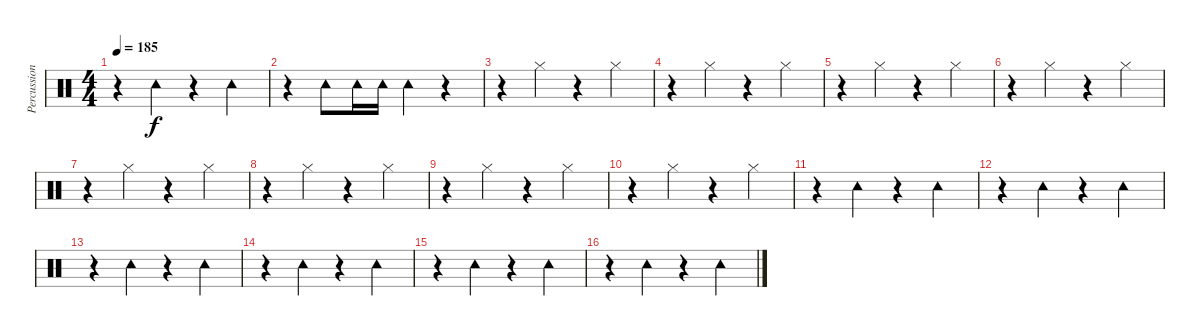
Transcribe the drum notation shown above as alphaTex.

\track ("Percussion" "Percussion") {instrument percussion}
\staff {score}
\articulation defaults
\ts (4 4)
\tempo 185
\clef neutral
\ks c
r.4{dy f} "Tambourine (hit)".4 r.4 "Tambourine (hit)".4 |
r.4 "Tambourine (hit)".8 "Tambourine (hit)".16 "Tambourine (hit)".16 "Tambourine (hit)".4 r.4 |
r.4 "Hi-Hat (closed)".4 r.4 "Hi-Hat (closed)".4 |
r.4 "Hi-Hat (closed)".4 r.4 "Hi-Hat (closed)".4 |
r.4 "Hi-Hat (closed)".4 r.4 "Hi-Hat (closed)".4 |
r.4 "Hi-Hat (closed)".4 r.4 "Hi-Hat (closed)".4 |
r.4 "Hi-Hat (closed)".4 r.4 "Hi-Hat (closed)".4 |
r.4 "Hi-Hat (closed)".4 r.4 "Hi-Hat (closed)".4 |
r.4 "Hi-Hat (closed)".4 r.4 "Hi-Hat (closed)".4 |
r.4 "Hi-Hat (closed)".4 r.4 "Hi-Hat (closed)".4 |
r.4 "Tambourine (hit)".4 r.4 "Tambourine (hit)".4 |
r.4 "Tambourine (hit)".4 r.4 "Tambourine (hit)".4 |
r.4 "Tambourine (hit)".4 r.4 "Tambourine (hit)".4 |
r.4 "Tambourine (hit)".4 r.4 "Tambourine (hit)".4 |
r.4 "Tambourine (hit)".4 r.4 "Tambourine (hit)".4 |
r.4 "Tambourine (hit)".4 r.4 "Tambourine (hit)".4
